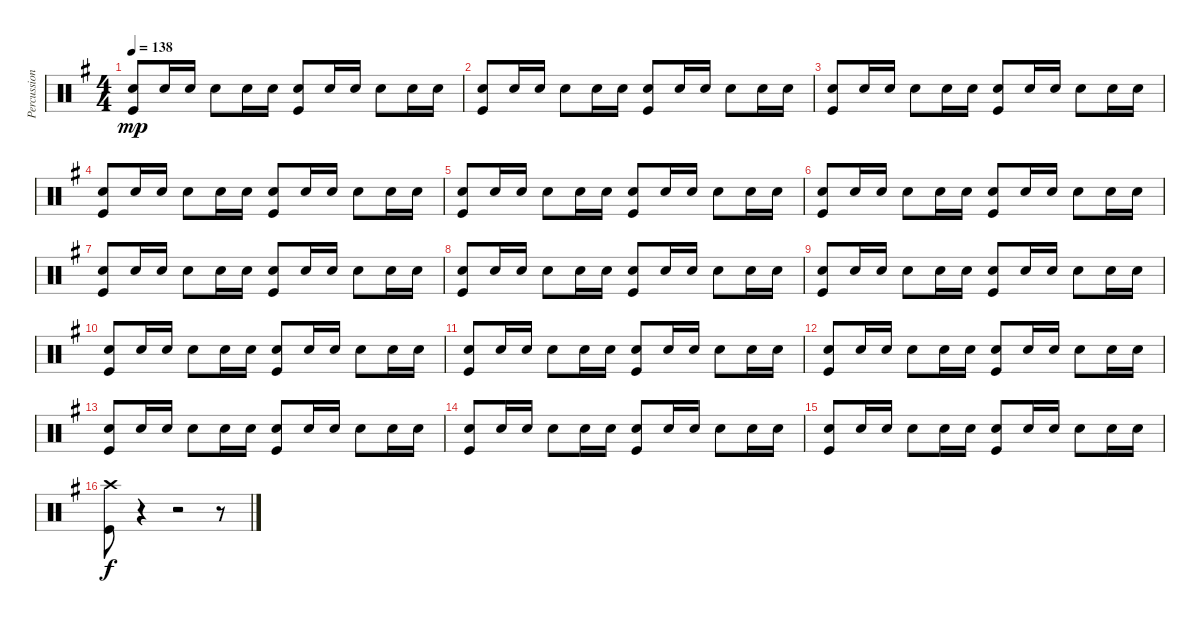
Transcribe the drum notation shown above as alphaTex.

\track ("Percussion" "Percussion") {instrument percussion}
\staff {score}
\articulation defaults
\ts (4 4)
\tempo 138
\clef neutral
\ks g
("Snare (hit) 2" "Kick (hit)").8{dy mp} "Snare (hit) 2".16 "Snare (hit) 2".16 "Snare (hit) 2".8 "Snare (hit) 2".16 "Snare (hit) 2".16 ("Snare (hit) 2" "Kick (hit)").8 "Snare (hit) 2".16 "Snare (hit) 2".16 "Snare (hit) 2".8 "Snare (hit) 2".16 "Snare (hit) 2".16 |
("Snare (hit) 2" "Kick (hit)").8 "Snare (hit) 2".16 "Snare (hit) 2".16 "Snare (hit) 2".8 "Snare (hit) 2".16 "Snare (hit) 2".16 ("Snare (hit) 2" "Kick (hit)").8 "Snare (hit) 2".16 "Snare (hit) 2".16 "Snare (hit) 2".8 "Snare (hit) 2".16 "Snare (hit) 2".16 |
("Snare (hit) 2" "Kick (hit)").8 "Snare (hit) 2".16 "Snare (hit) 2".16 "Snare (hit) 2".8 "Snare (hit) 2".16 "Snare (hit) 2".16 ("Snare (hit) 2" "Kick (hit)").8 "Snare (hit) 2".16 "Snare (hit) 2".16 "Snare (hit) 2".8 "Snare (hit) 2".16 "Snare (hit) 2".16 |
("Snare (hit) 2" "Kick (hit)").8 "Snare (hit) 2".16 "Snare (hit) 2".16 "Snare (hit) 2".8 "Snare (hit) 2".16 "Snare (hit) 2".16 ("Snare (hit) 2" "Kick (hit)").8 "Snare (hit) 2".16 "Snare (hit) 2".16 "Snare (hit) 2".8 "Snare (hit) 2".16 "Snare (hit) 2".16 |
("Snare (hit) 2" "Kick (hit)").8 "Snare (hit) 2".16 "Snare (hit) 2".16 "Snare (hit) 2".8 "Snare (hit) 2".16 "Snare (hit) 2".16 ("Snare (hit) 2" "Kick (hit)").8 "Snare (hit) 2".16 "Snare (hit) 2".16 "Snare (hit) 2".8 "Snare (hit) 2".16 "Snare (hit) 2".16 |
("Snare (hit) 2" "Kick (hit)").8 "Snare (hit) 2".16 "Snare (hit) 2".16 "Snare (hit) 2".8 "Snare (hit) 2".16 "Snare (hit) 2".16 ("Snare (hit) 2" "Kick (hit)").8 "Snare (hit) 2".16 "Snare (hit) 2".16 "Snare (hit) 2".8 "Snare (hit) 2".16 "Snare (hit) 2".16 |
("Snare (hit) 2" "Kick (hit)").8 "Snare (hit) 2".16 "Snare (hit) 2".16 "Snare (hit) 2".8 "Snare (hit) 2".16 "Snare (hit) 2".16 ("Snare (hit) 2" "Kick (hit)").8 "Snare (hit) 2".16 "Snare (hit) 2".16 "Snare (hit) 2".8 "Snare (hit) 2".16 "Snare (hit) 2".16 |
("Snare (hit) 2" "Kick (hit)").8 "Snare (hit) 2".16 "Snare (hit) 2".16 "Snare (hit) 2".8 "Snare (hit) 2".16 "Snare (hit) 2".16 ("Snare (hit) 2" "Kick (hit)").8 "Snare (hit) 2".16 "Snare (hit) 2".16 "Snare (hit) 2".8 "Snare (hit) 2".16 "Snare (hit) 2".16 |
("Snare (hit) 2" "Kick (hit)").8 "Snare (hit) 2".16 "Snare (hit) 2".16 "Snare (hit) 2".8 "Snare (hit) 2".16 "Snare (hit) 2".16 ("Snare (hit) 2" "Kick (hit)").8 "Snare (hit) 2".16 "Snare (hit) 2".16 "Snare (hit) 2".8 "Snare (hit) 2".16 "Snare (hit) 2".16 |
("Snare (hit) 2" "Kick (hit)").8 "Snare (hit) 2".16 "Snare (hit) 2".16 "Snare (hit) 2".8 "Snare (hit) 2".16 "Snare (hit) 2".16 ("Snare (hit) 2" "Kick (hit)").8 "Snare (hit) 2".16 "Snare (hit) 2".16 "Snare (hit) 2".8 "Snare (hit) 2".16 "Snare (hit) 2".16 |
("Snare (hit) 2" "Kick (hit)").8 "Snare (hit) 2".16 "Snare (hit) 2".16 "Snare (hit) 2".8 "Snare (hit) 2".16 "Snare (hit) 2".16 ("Snare (hit) 2" "Kick (hit)").8 "Snare (hit) 2".16 "Snare (hit) 2".16 "Snare (hit) 2".8 "Snare (hit) 2".16 "Snare (hit) 2".16 |
("Snare (hit) 2" "Kick (hit)").8 "Snare (hit) 2".16 "Snare (hit) 2".16 "Snare (hit) 2".8 "Snare (hit) 2".16 "Snare (hit) 2".16 ("Snare (hit) 2" "Kick (hit)").8 "Snare (hit) 2".16 "Snare (hit) 2".16 "Snare (hit) 2".8 "Snare (hit) 2".16 "Snare (hit) 2".16 |
("Snare (hit) 2" "Kick (hit)").8 "Snare (hit) 2".16 "Snare (hit) 2".16 "Snare (hit) 2".8 "Snare (hit) 2".16 "Snare (hit) 2".16 ("Snare (hit) 2" "Kick (hit)").8 "Snare (hit) 2".16 "Snare (hit) 2".16 "Snare (hit) 2".8 "Snare (hit) 2".16 "Snare (hit) 2".16 |
("Snare (hit) 2" "Kick (hit)").8 "Snare (hit) 2".16 "Snare (hit) 2".16 "Snare (hit) 2".8 "Snare (hit) 2".16 "Snare (hit) 2".16 ("Snare (hit) 2" "Kick (hit)").8 "Snare (hit) 2".16 "Snare (hit) 2".16 "Snare (hit) 2".8 "Snare (hit) 2".16 "Snare (hit) 2".16 |
("Snare (hit) 2" "Kick (hit)").8 "Snare (hit) 2".16 "Snare (hit) 2".16 "Snare (hit) 2".8 "Snare (hit) 2".16 "Snare (hit) 2".16 ("Snare (hit) 2" "Kick (hit)").8 "Snare (hit) 2".16 "Snare (hit) 2".16 "Snare (hit) 2".8 "Snare (hit) 2".16 "Snare (hit) 2".16 |
("Crash high (hit)" "Kick (hit)").8{dy f} r.4 r.2 r.8
